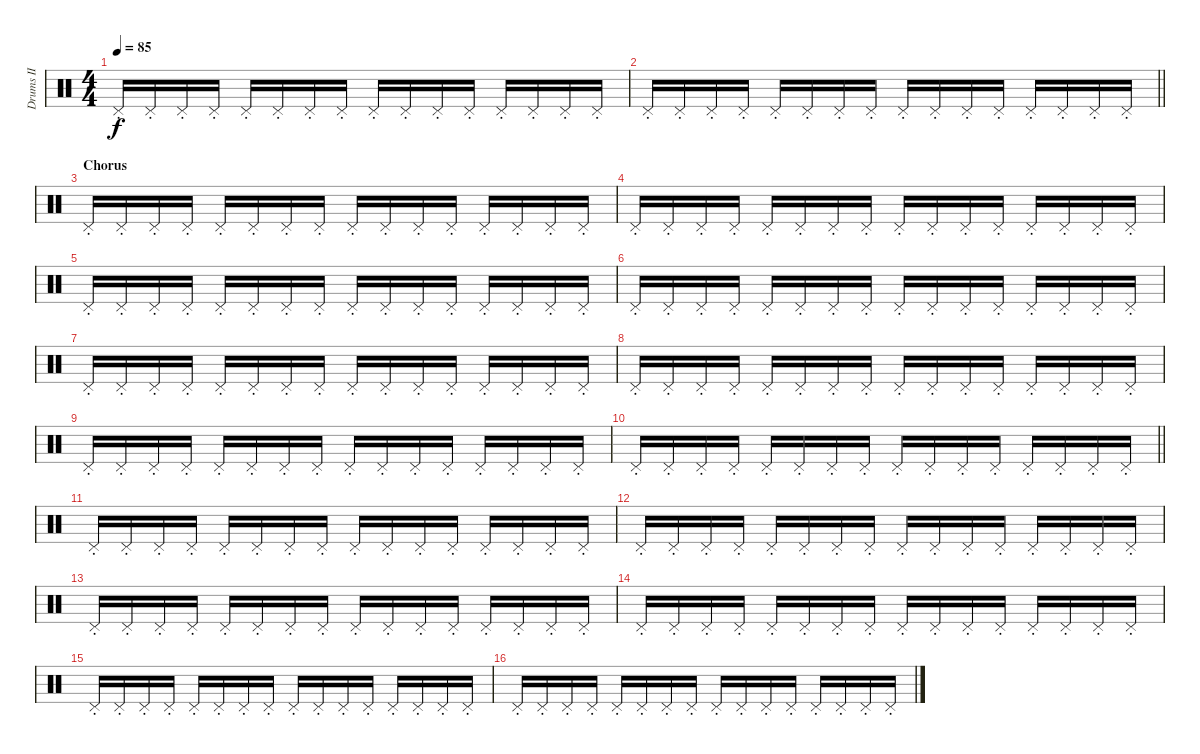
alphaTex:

\track ("Drums II" "Drums II") {instrument percussion}
\staff {score}
\articulation defaults
\ts (4 4)
\tempo 85
\clef neutral
\ks c "Pedal Hi-Hat (hit)"{st}.16{dy f} "Pedal Hi-Hat (hit)"{st}.16 "Pedal Hi-Hat (hit)"{st}.16 "Pedal Hi-Hat (hit)"{st}.16 "Pedal Hi-Hat (hit)"{st}.16 "Pedal Hi-Hat (hit)"{st}.16 "Pedal Hi-Hat (hit)"{st}.16 "Pedal Hi-Hat (hit)"{st}.16 "Pedal Hi-Hat (hit)"{st}.16 "Pedal Hi-Hat (hit)"{st}.16 "Pedal Hi-Hat (hit)"{st}.16 "Pedal Hi-Hat (hit)"{st}.16 "Pedal Hi-Hat (hit)"{st}.16 "Pedal Hi-Hat (hit)"{st}.16 "Pedal Hi-Hat (hit)"{st}.16 "Pedal Hi-Hat (hit)"{st}.16
|
\barLineRight lightlight "Pedal Hi-Hat (hit)"{st}.16 "Pedal Hi-Hat (hit)"{st}.16 "Pedal Hi-Hat (hit)"{st}.16 "Pedal Hi-Hat (hit)"{st}.16 "Pedal Hi-Hat (hit)"{st}.16 "Pedal Hi-Hat (hit)"{st}.16 "Pedal Hi-Hat (hit)"{st}.16 "Pedal Hi-Hat (hit)"{st}.16 "Pedal Hi-Hat (hit)"{st}.16 "Pedal Hi-Hat (hit)"{st}.16 "Pedal Hi-Hat (hit)"{st}.16 "Pedal Hi-Hat (hit)"{st}.16 "Pedal Hi-Hat (hit)"{st}.16 "Pedal Hi-Hat (hit)"{st}.16 "Pedal Hi-Hat (hit)"{st}.16 "Pedal Hi-Hat (hit)"{st}.16
|
\section ("" "Chorus")
"Pedal Hi-Hat (hit)"{st}.16 "Pedal Hi-Hat (hit)"{st}.16 "Pedal Hi-Hat (hit)"{st}.16 "Pedal Hi-Hat (hit)"{st}.16 "Pedal Hi-Hat (hit)"{st}.16 "Pedal Hi-Hat (hit)"{st}.16 "Pedal Hi-Hat (hit)"{st}.16 "Pedal Hi-Hat (hit)"{st}.16 "Pedal Hi-Hat (hit)"{st}.16 "Pedal Hi-Hat (hit)"{st}.16 "Pedal Hi-Hat (hit)"{st}.16 "Pedal Hi-Hat (hit)"{st}.16 "Pedal Hi-Hat (hit)"{st}.16 "Pedal Hi-Hat (hit)"{st}.16 "Pedal Hi-Hat (hit)"{st}.16 "Pedal Hi-Hat (hit)"{st}.16 |
"Pedal Hi-Hat (hit)"{st}.16 "Pedal Hi-Hat (hit)"{st}.16 "Pedal Hi-Hat (hit)"{st}.16 "Pedal Hi-Hat (hit)"{st}.16 "Pedal Hi-Hat (hit)"{st}.16 "Pedal Hi-Hat (hit)"{st}.16 "Pedal Hi-Hat (hit)"{st}.16 "Pedal Hi-Hat (hit)"{st}.16 "Pedal Hi-Hat (hit)"{st}.16 "Pedal Hi-Hat (hit)"{st}.16 "Pedal Hi-Hat (hit)"{st}.16 "Pedal Hi-Hat (hit)"{st}.16 "Pedal Hi-Hat (hit)"{st}.16 "Pedal Hi-Hat (hit)"{st}.16 "Pedal Hi-Hat (hit)"{st}.16 "Pedal Hi-Hat (hit)"{st}.16 |
"Pedal Hi-Hat (hit)"{st}.16 "Pedal Hi-Hat (hit)"{st}.16 "Pedal Hi-Hat (hit)"{st}.16 "Pedal Hi-Hat (hit)"{st}.16 "Pedal Hi-Hat (hit)"{st}.16 "Pedal Hi-Hat (hit)"{st}.16 "Pedal Hi-Hat (hit)"{st}.16 "Pedal Hi-Hat (hit)"{st}.16 "Pedal Hi-Hat (hit)"{st}.16 "Pedal Hi-Hat (hit)"{st}.16 "Pedal Hi-Hat (hit)"{st}.16 "Pedal Hi-Hat (hit)"{st}.16 "Pedal Hi-Hat (hit)"{st}.16 "Pedal Hi-Hat (hit)"{st}.16 "Pedal Hi-Hat (hit)"{st}.16 "Pedal Hi-Hat (hit)"{st}.16 |
"Pedal Hi-Hat (hit)"{st}.16 "Pedal Hi-Hat (hit)"{st}.16 "Pedal Hi-Hat (hit)"{st}.16 "Pedal Hi-Hat (hit)"{st}.16 "Pedal Hi-Hat (hit)"{st}.16 "Pedal Hi-Hat (hit)"{st}.16 "Pedal Hi-Hat (hit)"{st}.16 "Pedal Hi-Hat (hit)"{st}.16 "Pedal Hi-Hat (hit)"{st}.16 "Pedal Hi-Hat (hit)"{st}.16 "Pedal Hi-Hat (hit)"{st}.16 "Pedal Hi-Hat (hit)"{st}.16 "Pedal Hi-Hat (hit)"{st}.16 "Pedal Hi-Hat (hit)"{st}.16 "Pedal Hi-Hat (hit)"{st}.16 "Pedal Hi-Hat (hit)"{st}.16 |
"Pedal Hi-Hat (hit)"{st}.16 "Pedal Hi-Hat (hit)"{st}.16 "Pedal Hi-Hat (hit)"{st}.16 "Pedal Hi-Hat (hit)"{st}.16 "Pedal Hi-Hat (hit)"{st}.16 "Pedal Hi-Hat (hit)"{st}.16 "Pedal Hi-Hat (hit)"{st}.16 "Pedal Hi-Hat (hit)"{st}.16 "Pedal Hi-Hat (hit)"{st}.16 "Pedal Hi-Hat (hit)"{st}.16 "Pedal Hi-Hat (hit)"{st}.16 "Pedal Hi-Hat (hit)"{st}.16 "Pedal Hi-Hat (hit)"{st}.16 "Pedal Hi-Hat (hit)"{st}.16 "Pedal Hi-Hat (hit)"{st}.16 "Pedal Hi-Hat (hit)"{st}.16 |
"Pedal Hi-Hat (hit)"{st}.16 "Pedal Hi-Hat (hit)"{st}.16 "Pedal Hi-Hat (hit)"{st}.16 "Pedal Hi-Hat (hit)"{st}.16 "Pedal Hi-Hat (hit)"{st}.16 "Pedal Hi-Hat (hit)"{st}.16 "Pedal Hi-Hat (hit)"{st}.16 "Pedal Hi-Hat (hit)"{st}.16 "Pedal Hi-Hat (hit)"{st}.16 "Pedal Hi-Hat (hit)"{st}.16 "Pedal Hi-Hat (hit)"{st}.16 "Pedal Hi-Hat (hit)"{st}.16 "Pedal Hi-Hat (hit)"{st}.16 "Pedal Hi-Hat (hit)"{st}.16 "Pedal Hi-Hat (hit)"{st}.16 "Pedal Hi-Hat (hit)"{st}.16 |
"Pedal Hi-Hat (hit)"{st}.16 "Pedal Hi-Hat (hit)"{st}.16 "Pedal Hi-Hat (hit)"{st}.16 "Pedal Hi-Hat (hit)"{st}.16 "Pedal Hi-Hat (hit)"{st}.16 "Pedal Hi-Hat (hit)"{st}.16 "Pedal Hi-Hat (hit)"{st}.16 "Pedal Hi-Hat (hit)"{st}.16 "Pedal Hi-Hat (hit)"{st}.16 "Pedal Hi-Hat (hit)"{st}.16 "Pedal Hi-Hat (hit)"{st}.16 "Pedal Hi-Hat (hit)"{st}.16 "Pedal Hi-Hat (hit)"{st}.16 "Pedal Hi-Hat (hit)"{st}.16 "Pedal Hi-Hat (hit)"{st}.16 "Pedal Hi-Hat (hit)"{st}.16 |
\barLineRight lightlight "Pedal Hi-Hat (hit)"{st}.16 "Pedal Hi-Hat (hit)"{st}.16 "Pedal Hi-Hat (hit)"{st}.16 "Pedal Hi-Hat (hit)"{st}.16 "Pedal Hi-Hat (hit)"{st}.16 "Pedal Hi-Hat (hit)"{st}.16 "Pedal Hi-Hat (hit)"{st}.16 "Pedal Hi-Hat (hit)"{st}.16 "Pedal Hi-Hat (hit)"{st}.16 "Pedal Hi-Hat (hit)"{st}.16 "Pedal Hi-Hat (hit)"{st}.16 "Pedal Hi-Hat (hit)"{st}.16 "Pedal Hi-Hat (hit)"{st}.16 "Pedal Hi-Hat (hit)"{st}.16 "Pedal Hi-Hat (hit)"{st}.16 "Pedal Hi-Hat (hit)"{st}.16
|
"Pedal Hi-Hat (hit)"{st}.16 "Pedal Hi-Hat (hit)"{st}.16 "Pedal Hi-Hat (hit)"{st}.16 "Pedal Hi-Hat (hit)"{st}.16 "Pedal Hi-Hat (hit)"{st}.16 "Pedal Hi-Hat (hit)"{st}.16 "Pedal Hi-Hat (hit)"{st}.16 "Pedal Hi-Hat (hit)"{st}.16 "Pedal Hi-Hat (hit)"{st}.16 "Pedal Hi-Hat (hit)"{st}.16 "Pedal Hi-Hat (hit)"{st}.16 "Pedal Hi-Hat (hit)"{st}.16 "Pedal Hi-Hat (hit)"{st}.16 "Pedal Hi-Hat (hit)"{st}.16 "Pedal Hi-Hat (hit)"{st}.16 "Pedal Hi-Hat (hit)"{st}.16 |
"Pedal Hi-Hat (hit)"{st}.16 "Pedal Hi-Hat (hit)"{st}.16 "Pedal Hi-Hat (hit)"{st}.16 "Pedal Hi-Hat (hit)"{st}.16 "Pedal Hi-Hat (hit)"{st}.16 "Pedal Hi-Hat (hit)"{st}.16 "Pedal Hi-Hat (hit)"{st}.16 "Pedal Hi-Hat (hit)"{st}.16 "Pedal Hi-Hat (hit)"{st}.16 "Pedal Hi-Hat (hit)"{st}.16 "Pedal Hi-Hat (hit)"{st}.16 "Pedal Hi-Hat (hit)"{st}.16 "Pedal Hi-Hat (hit)"{st}.16 "Pedal Hi-Hat (hit)"{st}.16 "Pedal Hi-Hat (hit)"{st}.16 "Pedal Hi-Hat (hit)"{st}.16 |
"Pedal Hi-Hat (hit)"{st}.16 "Pedal Hi-Hat (hit)"{st}.16 "Pedal Hi-Hat (hit)"{st}.16 "Pedal Hi-Hat (hit)"{st}.16 "Pedal Hi-Hat (hit)"{st}.16 "Pedal Hi-Hat (hit)"{st}.16 "Pedal Hi-Hat (hit)"{st}.16 "Pedal Hi-Hat (hit)"{st}.16 "Pedal Hi-Hat (hit)"{st}.16 "Pedal Hi-Hat (hit)"{st}.16 "Pedal Hi-Hat (hit)"{st}.16 "Pedal Hi-Hat (hit)"{st}.16 "Pedal Hi-Hat (hit)"{st}.16 "Pedal Hi-Hat (hit)"{st}.16 "Pedal Hi-Hat (hit)"{st}.16 "Pedal Hi-Hat (hit)"{st}.16 |
"Pedal Hi-Hat (hit)"{st}.16 "Pedal Hi-Hat (hit)"{st}.16 "Pedal Hi-Hat (hit)"{st}.16 "Pedal Hi-Hat (hit)"{st}.16 "Pedal Hi-Hat (hit)"{st}.16 "Pedal Hi-Hat (hit)"{st}.16 "Pedal Hi-Hat (hit)"{st}.16 "Pedal Hi-Hat (hit)"{st}.16 "Pedal Hi-Hat (hit)"{st}.16 "Pedal Hi-Hat (hit)"{st}.16 "Pedal Hi-Hat (hit)"{st}.16 "Pedal Hi-Hat (hit)"{st}.16 "Pedal Hi-Hat (hit)"{st}.16 "Pedal Hi-Hat (hit)"{st}.16 "Pedal Hi-Hat (hit)"{st}.16 "Pedal Hi-Hat (hit)"{st}.16 |
"Pedal Hi-Hat (hit)"{st}.16 "Pedal Hi-Hat (hit)"{st}.16 "Pedal Hi-Hat (hit)"{st}.16 "Pedal Hi-Hat (hit)"{st}.16 "Pedal Hi-Hat (hit)"{st}.16 "Pedal Hi-Hat (hit)"{st}.16 "Pedal Hi-Hat (hit)"{st}.16 "Pedal Hi-Hat (hit)"{st}.16 "Pedal Hi-Hat (hit)"{st}.16 "Pedal Hi-Hat (hit)"{st}.16 "Pedal Hi-Hat (hit)"{st}.16 "Pedal Hi-Hat (hit)"{st}.16 "Pedal Hi-Hat (hit)"{st}.16 "Pedal Hi-Hat (hit)"{st}.16 "Pedal Hi-Hat (hit)"{st}.16 "Pedal Hi-Hat (hit)"{st}.16 |
"Pedal Hi-Hat (hit)"{st}.16 "Pedal Hi-Hat (hit)"{st}.16 "Pedal Hi-Hat (hit)"{st}.16 "Pedal Hi-Hat (hit)"{st}.16 "Pedal Hi-Hat (hit)"{st}.16 "Pedal Hi-Hat (hit)"{st}.16 "Pedal Hi-Hat (hit)"{st}.16 "Pedal Hi-Hat (hit)"{st}.16 "Pedal Hi-Hat (hit)"{st}.16 "Pedal Hi-Hat (hit)"{st}.16 "Pedal Hi-Hat (hit)"{st}.16 "Pedal Hi-Hat (hit)"{st}.16 "Pedal Hi-Hat (hit)"{st}.16 "Pedal Hi-Hat (hit)"{st}.16 "Pedal Hi-Hat (hit)"{st}.16 "Pedal Hi-Hat (hit)"{st}.16
